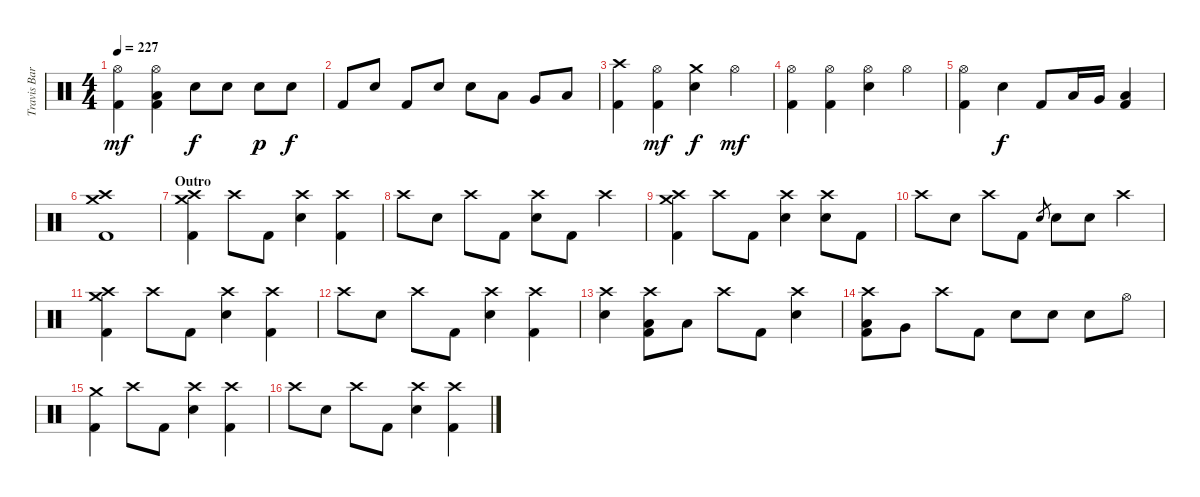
\track ("Travis Barker - Batería" "Travis Bar") {instrument percussion}
\staff {score}
\articulation defaults
\ts (4 4)
\tempo 227
\clef neutral
\ks c
("Hi-Hat (open)" "Kick (hit) 2").4{dy mf} ("Hi-Hat (open)" "Low Tom (hit)" "Kick (hit) 2").4 "Electric Snare (hit)".8{dy f} "Electric Snare (hit)".8 "Electric Snare (hit)".8{dy p} "Electric Snare (hit)".8{dy f} |
"Kick (hit) 2".8 "Electric Snare (hit)".8 "Kick (hit) 2".8 "Electric Snare (hit)".8 "Electric Snare (hit)".8 "Low Tom (hit)".8 "Very Low Tom (hit)".8 "Low Floor Tom (hit)".8 |
("Crash high (hit)" "Kick (hit) 2").4 ("Hi-Hat (open)" "Kick (hit) 2").4{dy mf} ("Crash medium (hit)" "Electric Snare (hit)").4{dy f} "Hi-Hat (open)".4{dy mf} |
("Hi-Hat (open)" "Kick (hit) 2").4 ("Hi-Hat (open)" "Kick (hit) 2").4 ("Hi-Hat (open)" "Electric Snare (hit)").4 "Hi-Hat (open)".4 |
("Hi-Hat (open)" "Kick (hit) 2").4 "Electric Snare (hit)".4{dy f} "Kick (hit) 2".8 "Low Tom (hit)".16 "Very Low Tom (hit)".16 ("Low Floor Tom (hit)" "Kick (hit) 2").4 |
("Crash medium (hit)" "Crash high (hit)" "Kick (hit) 2").1 |
\section ("" "Outro")
("Crash medium (hit)" "Crash high (hit)" "Kick (hit) 2").4 "Crash high (hit)".8 "Kick (hit) 2".8 ("Crash high (hit)" "Electric Snare (hit)").4 ("Crash high (hit)" "Kick (hit) 2").4 |
"Crash high (hit)".8 "Electric Snare (hit)".8 "Crash high (hit)".8 "Kick (hit) 2".8 ("Crash high (hit)" "Electric Snare (hit)").8 "Kick (hit) 2".8 "Crash high (hit)".4 |
("Crash medium (hit)" "Crash high (hit)" "Kick (hit) 2").4 "Crash high (hit)".8 "Kick (hit) 2".8 ("Crash high (hit)" "Electric Snare (hit)").4 ("Crash high (hit)" "Electric Snare (hit)").8 "Kick (hit) 2".8 |
"Crash high (hit)".8 "Electric Snare (hit)".8 "Crash high (hit)".8 "Kick (hit) 2".8 "Electric Snare (hit)".8{gr} "Electric Snare (hit)".8 "Electric Snare (hit)".8 "Crash high (hit)".4 |
("Crash medium (hit)" "Crash high (hit)" "Kick (hit) 2").4 "Crash high (hit)".8 "Kick (hit) 2".8 ("Crash high (hit)" "Electric Snare (hit)").4 ("Crash high (hit)" "Kick (hit) 2").4 |
"Crash high (hit)".8 "Electric Snare (hit)".8 "Crash high (hit)".8 "Kick (hit) 2".8 ("Crash high (hit)" "Electric Snare (hit)").4 ("Crash high (hit)" "Kick (hit) 2").4 |
("Crash high (hit)" "Electric Snare (hit)").4 ("Crash high (hit)" "Low Tom (hit)" "Kick (hit) 2").8 "Low Tom (hit)".8 "Crash high (hit)".8 "Kick (hit) 2".8 ("Crash high (hit)" "Electric Snare (hit)").4 |
("Crash high (hit)" "Low Tom (hit)" "Kick (hit) 2").8 "Very Low Tom (hit)".8 "Crash high (hit)".8 "Kick (hit) 2".8 "Electric Snare (hit)".8 "Electric Snare (hit)".8 "Electric Snare (hit)".8 "Hi-Hat (open)".8 |
("Crash medium (hit)" "Kick (hit) 2").4 "Crash high (hit)".8 "Kick (hit) 2".8 ("Crash high (hit)" "Electric Snare (hit)").4 ("Crash high (hit)" "Kick (hit) 2").4 |
"Crash high (hit)".8 "Electric Snare (hit)".8 "Crash high (hit)".8 "Kick (hit) 2".8 ("Crash high (hit)" "Electric Snare (hit)").4 ("Crash high (hit)" "Kick (hit) 2").4
